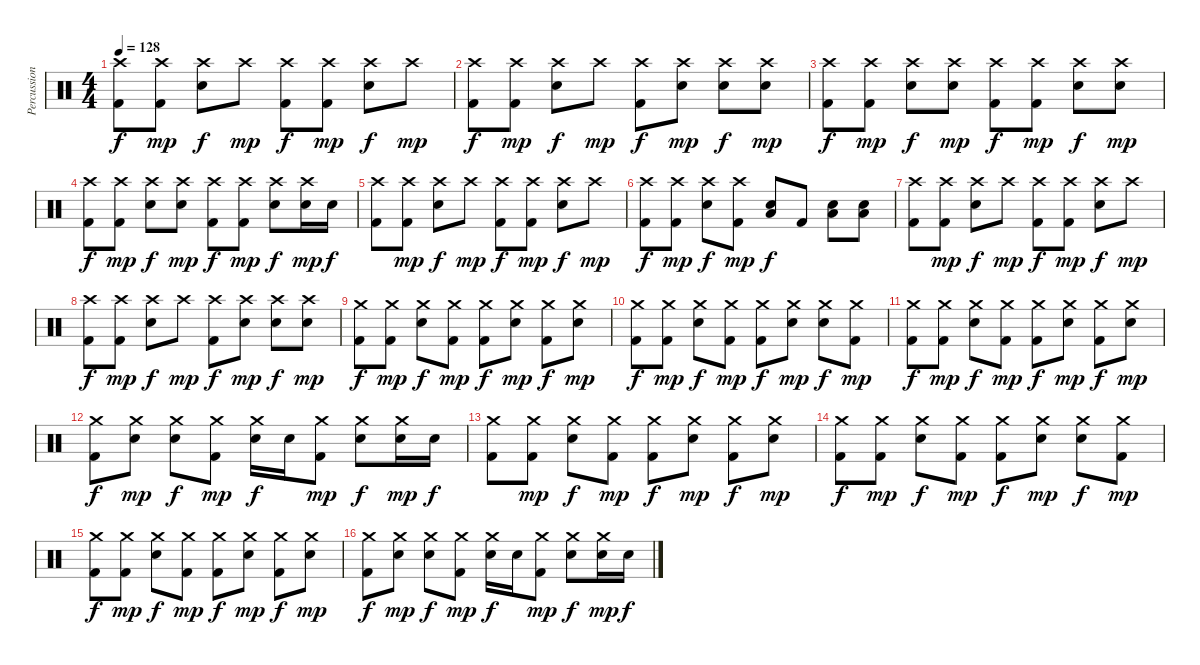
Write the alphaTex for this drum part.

\track ("Percussion" "Percussion") {instrument percussion}
\staff {score}
\articulation defaults
\ts (4 4)
\tempo 128
\clef neutral
\ks c
("Crash high (hit)" "Kick (hit) 2").8{dy f} ("Crash high (hit)" "Kick (hit) 2").8{dy mp} ("Crash high (hit)" "Snare (hit) 2").8{dy f} "Crash high (hit)".8{dy mp} ("Crash high (hit)" "Kick (hit) 2").8{dy f} ("Crash high (hit)" "Kick (hit) 2").8{dy mp} ("Crash high (hit)" "Snare (hit) 2").8{dy f} "Crash high (hit)".8{dy mp} |
("Crash high (hit)" "Kick (hit) 2").8{dy f} ("Crash high (hit)" "Kick (hit) 2").8{dy mp} ("Crash high (hit)" "Snare (hit) 2").8{dy f} "Crash high (hit)".8{dy mp} ("Crash high (hit)" "Kick (hit) 2").8{dy f} ("Crash high (hit)" "Snare (hit) 2").8{dy mp} ("Crash high (hit)" "Snare (hit) 2").8{dy f} ("Crash high (hit)" "Snare (hit) 2").8{dy mp} |
("Crash high (hit)" "Kick (hit) 2").8{dy f} ("Crash high (hit)" "Kick (hit) 2").8{dy mp} ("Crash high (hit)" "Snare (hit) 2").8{dy f} ("Crash high (hit)" "Snare (hit) 2").8{dy mp} ("Crash high (hit)" "Kick (hit) 2").8{dy f} ("Crash high (hit)" "Kick (hit) 2").8{dy mp} ("Crash high (hit)" "Snare (hit) 2").8{dy f} ("Crash high (hit)" "Snare (hit) 2").8{dy mp} |
("Crash high (hit)" "Kick (hit) 2").8{dy f} ("Crash high (hit)" "Kick (hit) 2").8{dy mp} ("Crash high (hit)" "Snare (hit) 2").8{dy f} ("Crash high (hit)" "Snare (hit) 2").8{dy mp} ("Crash high (hit)" "Kick (hit) 2").8{dy f} ("Crash high (hit)" "Kick (hit) 2").8{dy mp} ("Crash high (hit)" "Snare (hit) 2").8{dy f} ("Crash high (hit)" "Snare (hit) 2").16{dy mp} "Snare (hit) 2".16{dy f} |
("Crash high (hit)" "Kick (hit) 2").8 ("Crash high (hit)" "Kick (hit) 2").8{dy mp} ("Crash high (hit)" "Snare (hit) 2").8{dy f} "Crash high (hit)".8{dy mp} ("Crash high (hit)" "Kick (hit) 2").8{dy f} ("Crash high (hit)" "Kick (hit) 2").8{dy mp} ("Crash high (hit)" "Snare (hit) 2").8{dy f} "Crash high (hit)".8{dy mp} |
("Crash high (hit)" "Kick (hit) 2").8{dy f} ("Crash high (hit)" "Kick (hit) 2").8{dy mp} ("Crash high (hit)" "Snare (hit) 2").8{dy f} ("Crash high (hit)" "Kick (hit) 2").8{dy mp} ("Low Tom (hit)" "Snare (hit) 2").8{dy f} "Kick (hit) 2".8 ("Low Tom (hit)" "Snare (hit) 2").8 ("Low Tom (hit)" "Snare (hit) 2").8 |
("Crash high (hit)" "Kick (hit) 2").8 ("Crash high (hit)" "Kick (hit) 2").8{dy mp} ("Crash high (hit)" "Snare (hit) 2").8{dy f} "Crash high (hit)".8{dy mp} ("Crash high (hit)" "Kick (hit) 2").8{dy f} ("Crash high (hit)" "Kick (hit) 2").8{dy mp} ("Crash high (hit)" "Snare (hit) 2").8{dy f} "Crash high (hit)".8{dy mp} |
("Crash high (hit)" "Kick (hit) 2").8{dy f} ("Crash high (hit)" "Kick (hit) 2").8{dy mp} ("Crash high (hit)" "Snare (hit) 2").8{dy f} "Crash high (hit)".8{dy mp} ("Crash high (hit)" "Kick (hit) 2").8{dy f} ("Crash high (hit)" "Snare (hit) 2").8{dy mp} ("Crash high (hit)" "Snare (hit) 2").8{dy f} ("Crash high (hit)" "Snare (hit) 2").8{dy mp} |
("Crash medium (hit)" "Kick (hit) 2").8{dy f} ("Crash medium (hit)" "Kick (hit) 2").8{dy mp} ("Crash medium (hit)" "Snare (hit) 2").8{dy f} ("Crash medium (hit)" "Kick (hit) 2").8{dy mp} ("Crash medium (hit)" "Kick (hit) 2").8{dy f} ("Crash medium (hit)" "Snare (hit) 2").8{dy mp} ("Crash medium (hit)" "Kick (hit) 2").8{dy f} ("Crash medium (hit)" "Snare (hit) 2").8{dy mp} |
("Crash medium (hit)" "Kick (hit) 2").8{dy f} ("Crash medium (hit)" "Kick (hit) 2").8{dy mp} ("Crash medium (hit)" "Snare (hit) 2").8{dy f} ("Crash medium (hit)" "Kick (hit) 2").8{dy mp} ("Crash medium (hit)" "Kick (hit) 2").8{dy f} ("Crash medium (hit)" "Snare (hit) 2").8{dy mp} ("Crash medium (hit)" "Snare (hit) 2").8{dy f} ("Crash medium (hit)" "Kick (hit) 2").8{dy mp} |
("Crash medium (hit)" "Kick (hit) 2").8{dy f} ("Crash medium (hit)" "Kick (hit) 2").8{dy mp} ("Crash medium (hit)" "Snare (hit) 2").8{dy f} ("Crash medium (hit)" "Kick (hit) 2").8{dy mp} ("Crash medium (hit)" "Kick (hit) 2").8{dy f} ("Crash medium (hit)" "Snare (hit) 2").8{dy mp} ("Crash medium (hit)" "Kick (hit) 2").8{dy f} ("Crash medium (hit)" "Snare (hit) 2").8{dy mp} |
("Crash medium (hit)" "Kick (hit) 2").8{dy f} ("Crash medium (hit)" "Snare (hit) 2").8{dy mp} ("Crash medium (hit)" "Snare (hit) 2").8{dy f} ("Crash medium (hit)" "Kick (hit) 2").8{dy mp} ("Crash medium (hit)" "Snare (hit) 2").16{dy f} "Snare (hit) 2".16 ("Crash medium (hit)" "Kick (hit) 2").8{dy mp} ("Crash medium (hit)" "Snare (hit) 2").8{dy f} ("Crash medium (hit)" "Snare (hit) 2").16{dy mp} "Snare (hit) 2".16{dy f} |
("Crash medium (hit)" "Kick (hit) 2").8 ("Crash medium (hit)" "Kick (hit) 2").8{dy mp} ("Crash medium (hit)" "Snare (hit) 2").8{dy f} ("Crash medium (hit)" "Kick (hit) 2").8{dy mp} ("Crash medium (hit)" "Kick (hit) 2").8{dy f} ("Crash medium (hit)" "Snare (hit) 2").8{dy mp} ("Crash medium (hit)" "Kick (hit) 2").8{dy f} ("Crash medium (hit)" "Snare (hit) 2").8{dy mp} |
("Crash medium (hit)" "Kick (hit) 2").8{dy f} ("Crash medium (hit)" "Kick (hit) 2").8{dy mp} ("Crash medium (hit)" "Snare (hit) 2").8{dy f} ("Crash medium (hit)" "Kick (hit) 2").8{dy mp} ("Crash medium (hit)" "Kick (hit) 2").8{dy f} ("Crash medium (hit)" "Snare (hit) 2").8{dy mp} ("Crash medium (hit)" "Snare (hit) 2").8{dy f} ("Crash medium (hit)" "Kick (hit) 2").8{dy mp} |
("Crash medium (hit)" "Kick (hit) 2").8{dy f} ("Crash medium (hit)" "Kick (hit) 2").8{dy mp} ("Crash medium (hit)" "Snare (hit) 2").8{dy f} ("Crash medium (hit)" "Kick (hit) 2").8{dy mp} ("Crash medium (hit)" "Kick (hit) 2").8{dy f} ("Crash medium (hit)" "Snare (hit) 2").8{dy mp} ("Crash medium (hit)" "Kick (hit) 2").8{dy f} ("Crash medium (hit)" "Snare (hit) 2").8{dy mp} |
("Crash medium (hit)" "Kick (hit) 2").8{dy f} ("Crash medium (hit)" "Snare (hit) 2").8{dy mp} ("Crash medium (hit)" "Snare (hit) 2").8{dy f} ("Crash medium (hit)" "Kick (hit) 2").8{dy mp} ("Crash medium (hit)" "Snare (hit) 2").16{dy f} "Snare (hit) 2".16 ("Crash medium (hit)" "Kick (hit) 2").8{dy mp} ("Crash medium (hit)" "Snare (hit) 2").8{dy f} ("Crash medium (hit)" "Snare (hit) 2").16{dy mp} "Snare (hit) 2".16{dy f}
